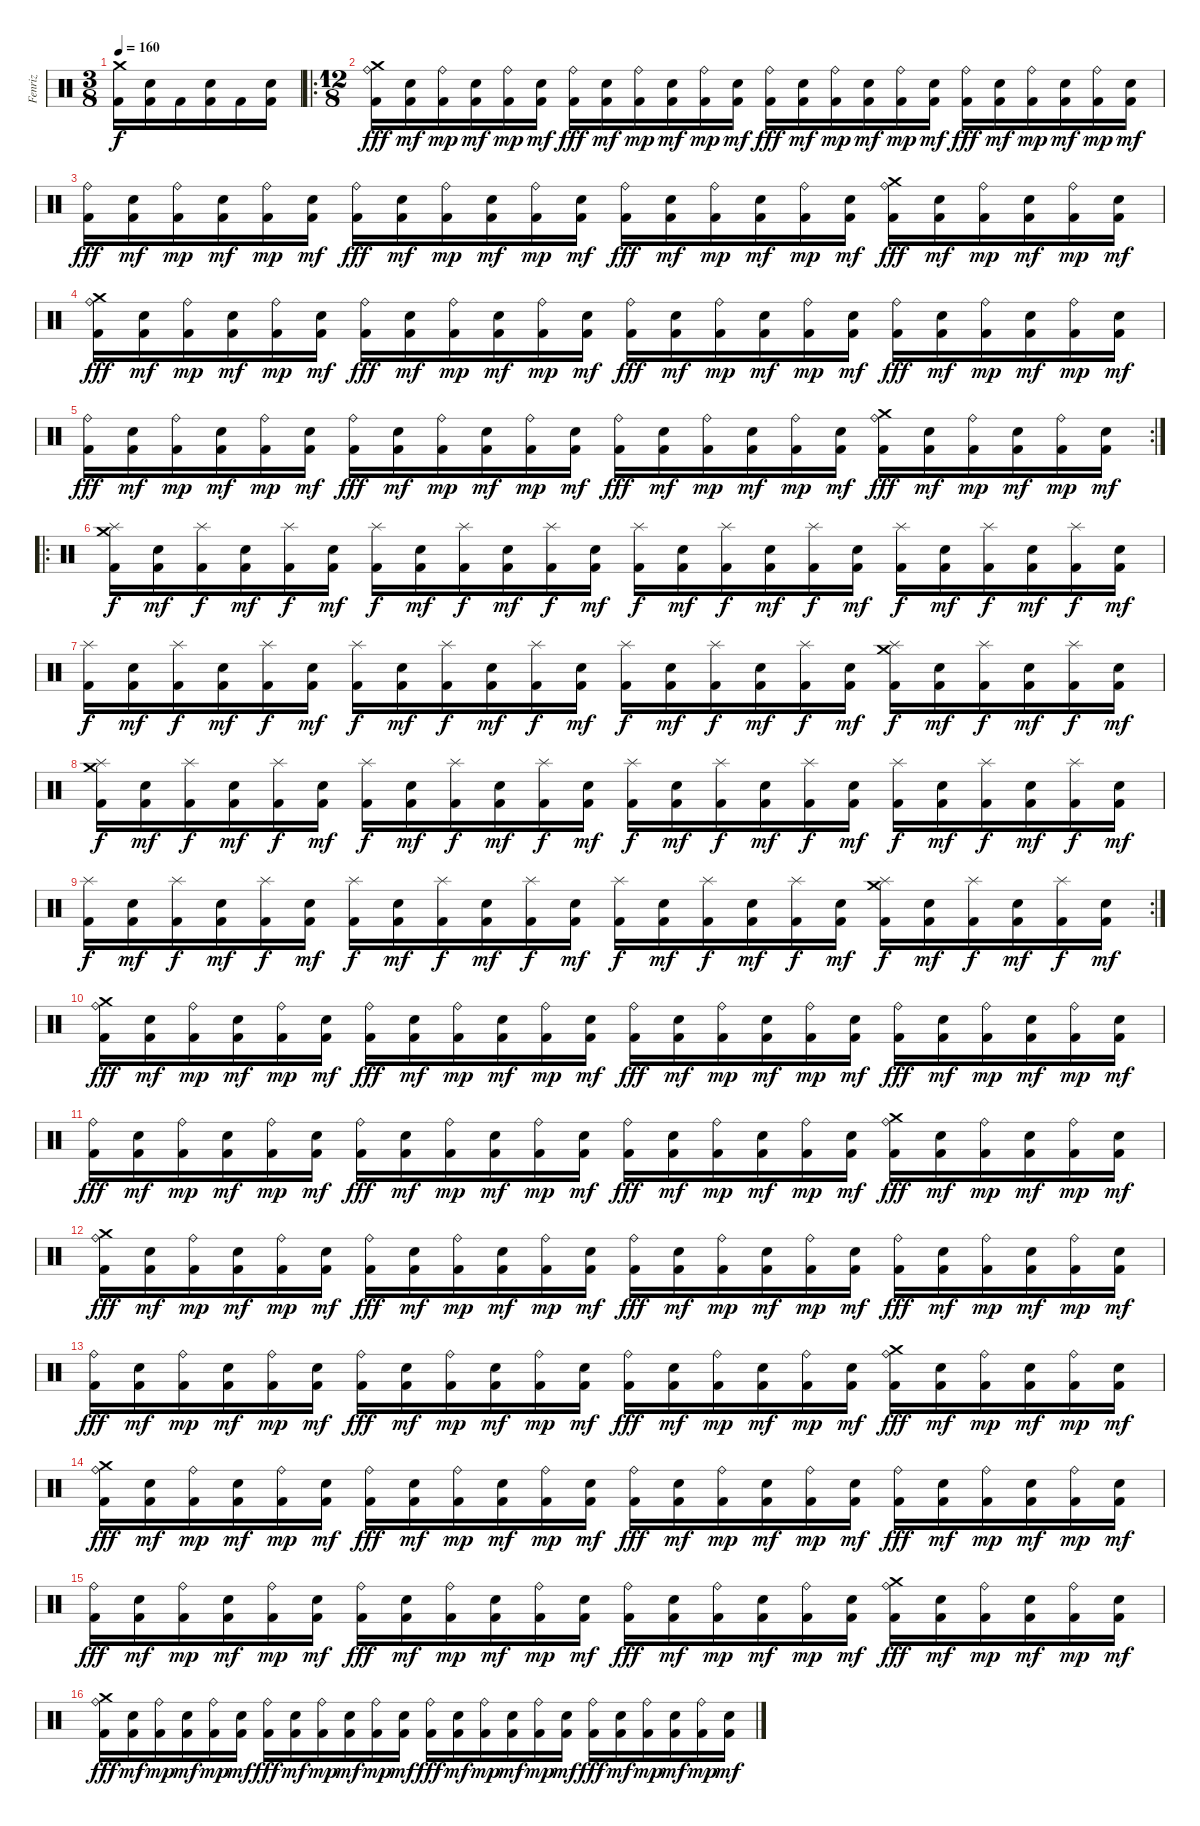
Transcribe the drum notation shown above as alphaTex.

\track ("Fenriz" "Fenriz") {instrument percussion}
\staff {score}
\articulation defaults
\ts (3 8)
\tempo 160
\clef neutral
\ks c
("Kick (hit) 2" "Crash medium (hit)").16{dy f} ("Kick (hit) 2" "Electric Snare (hit)").16 "Kick (hit) 2".16 ("Kick (hit) 2" "Electric Snare (hit)").16 "Kick (hit) 2".16 ("Kick (hit) 2" "Electric Snare (hit)").16 |
\ro
\ts (12 8)
("Kick (hit) 2" "Crash medium (hit)" "Ride (bell)").16{dy fff} ("Kick (hit) 2" "Electric Snare (hit)").16{dy mf} ("Kick (hit) 2" "Ride (bell)").16{dy mp} ("Kick (hit) 2" "Electric Snare (hit)").16{dy mf} ("Kick (hit) 2" "Ride (bell)").16{dy mp} ("Kick (hit) 2" "Electric Snare (hit)").16{dy mf} ("Kick (hit) 2" "Ride (bell)").16{dy fff} ("Kick (hit) 2" "Electric Snare (hit)").16{dy mf} ("Kick (hit) 2" "Ride (bell)").16{dy mp} ("Kick (hit) 2" "Electric Snare (hit)").16{dy mf} ("Kick (hit) 2" "Ride (bell)").16{dy mp} ("Kick (hit) 2" "Electric Snare (hit)").16{dy mf} ("Kick (hit) 2" "Ride (bell)").16{dy fff} ("Kick (hit) 2" "Electric Snare (hit)").16{dy mf} ("Kick (hit) 2" "Ride (bell)").16{dy mp} ("Kick (hit) 2" "Electric Snare (hit)").16{dy mf} ("Kick (hit) 2" "Ride (bell)").16{dy mp} ("Kick (hit) 2" "Electric Snare (hit)").16{dy mf} ("Kick (hit) 2" "Ride (bell)").16{dy fff} ("Kick (hit) 2" "Electric Snare (hit)").16{dy mf} ("Kick (hit) 2" "Ride (bell)").16{dy mp} ("Kick (hit) 2" "Electric Snare (hit)").16{dy mf} ("Kick (hit) 2" "Ride (bell)").16{dy mp} ("Kick (hit) 2" "Electric Snare (hit)").16{dy mf} |
("Kick (hit) 2" "Ride (bell)").16{dy fff} ("Kick (hit) 2" "Electric Snare (hit)").16{dy mf} ("Kick (hit) 2" "Ride (bell)").16{dy mp} ("Kick (hit) 2" "Electric Snare (hit)").16{dy mf} ("Kick (hit) 2" "Ride (bell)").16{dy mp} ("Kick (hit) 2" "Electric Snare (hit)").16{dy mf} ("Kick (hit) 2" "Ride (bell)").16{dy fff} ("Kick (hit) 2" "Electric Snare (hit)").16{dy mf} ("Kick (hit) 2" "Ride (bell)").16{dy mp} ("Kick (hit) 2" "Electric Snare (hit)").16{dy mf} ("Kick (hit) 2" "Ride (bell)").16{dy mp} ("Kick (hit) 2" "Electric Snare (hit)").16{dy mf} ("Kick (hit) 2" "Ride (bell)").16{dy fff} ("Kick (hit) 2" "Electric Snare (hit)").16{dy mf} ("Kick (hit) 2" "Ride (bell)").16{dy mp} ("Kick (hit) 2" "Electric Snare (hit)").16{dy mf} ("Kick (hit) 2" "Ride (bell)").16{dy mp} ("Kick (hit) 2" "Electric Snare (hit)").16{dy mf} ("Kick (hit) 2" "Crash medium (hit)" "Ride (bell)").16{dy fff} ("Kick (hit) 2" "Electric Snare (hit)").16{dy mf} ("Kick (hit) 2" "Ride (bell)").16{dy mp} ("Kick (hit) 2" "Electric Snare (hit)").16{dy mf} ("Kick (hit) 2" "Ride (bell)").16{dy mp} ("Kick (hit) 2" "Electric Snare (hit)").16{dy mf} |
("Kick (hit) 2" "Crash medium (hit)" "Ride (bell)").16{dy fff} ("Kick (hit) 2" "Electric Snare (hit)").16{dy mf} ("Kick (hit) 2" "Ride (bell)").16{dy mp} ("Kick (hit) 2" "Electric Snare (hit)").16{dy mf} ("Kick (hit) 2" "Ride (bell)").16{dy mp} ("Kick (hit) 2" "Electric Snare (hit)").16{dy mf} ("Kick (hit) 2" "Ride (bell)").16{dy fff} ("Kick (hit) 2" "Electric Snare (hit)").16{dy mf} ("Kick (hit) 2" "Ride (bell)").16{dy mp} ("Kick (hit) 2" "Electric Snare (hit)").16{dy mf} ("Kick (hit) 2" "Ride (bell)").16{dy mp} ("Kick (hit) 2" "Electric Snare (hit)").16{dy mf} ("Kick (hit) 2" "Ride (bell)").16{dy fff} ("Kick (hit) 2" "Electric Snare (hit)").16{dy mf} ("Kick (hit) 2" "Ride (bell)").16{dy mp} ("Kick (hit) 2" "Electric Snare (hit)").16{dy mf} ("Kick (hit) 2" "Ride (bell)").16{dy mp} ("Kick (hit) 2" "Electric Snare (hit)").16{dy mf} ("Kick (hit) 2" "Ride (bell)").16{dy fff} ("Kick (hit) 2" "Electric Snare (hit)").16{dy mf} ("Kick (hit) 2" "Ride (bell)").16{dy mp} ("Kick (hit) 2" "Electric Snare (hit)").16{dy mf} ("Kick (hit) 2" "Ride (bell)").16{dy mp} ("Kick (hit) 2" "Electric Snare (hit)").16{dy mf} |
\rc 2
("Kick (hit) 2" "Ride (bell)").16{dy fff} ("Kick (hit) 2" "Electric Snare (hit)").16{dy mf} ("Kick (hit) 2" "Ride (bell)").16{dy mp} ("Kick (hit) 2" "Electric Snare (hit)").16{dy mf} ("Kick (hit) 2" "Ride (bell)").16{dy mp} ("Kick (hit) 2" "Electric Snare (hit)").16{dy mf} ("Kick (hit) 2" "Ride (bell)").16{dy fff} ("Kick (hit) 2" "Electric Snare (hit)").16{dy mf} ("Kick (hit) 2" "Ride (bell)").16{dy mp} ("Kick (hit) 2" "Electric Snare (hit)").16{dy mf} ("Kick (hit) 2" "Ride (bell)").16{dy mp} ("Kick (hit) 2" "Electric Snare (hit)").16{dy mf} ("Kick (hit) 2" "Ride (bell)").16{dy fff} ("Kick (hit) 2" "Electric Snare (hit)").16{dy mf} ("Kick (hit) 2" "Ride (bell)").16{dy mp} ("Kick (hit) 2" "Electric Snare (hit)").16{dy mf} ("Kick (hit) 2" "Ride (bell)").16{dy mp} ("Kick (hit) 2" "Electric Snare (hit)").16{dy mf} ("Kick (hit) 2" "Crash medium (hit)" "Ride (bell)").16{dy fff} ("Kick (hit) 2" "Electric Snare (hit)").16{dy mf} ("Kick (hit) 2" "Ride (bell)").16{dy mp} ("Kick (hit) 2" "Electric Snare (hit)").16{dy mf} ("Kick (hit) 2" "Ride (bell)").16{dy mp} ("Kick (hit) 2" "Electric Snare (hit)").16{dy mf} |
\ro
("Kick (hit) 2" "Crash medium (hit)" "Splash (hit)").16{dy f} ("Kick (hit) 2" "Electric Snare (hit)").16{dy mf} ("Kick (hit) 2" "Splash (hit)").16{dy f} ("Kick (hit) 2" "Electric Snare (hit)").16{dy mf} ("Kick (hit) 2" "Splash (hit)").16{dy f} ("Kick (hit) 2" "Electric Snare (hit)").16{dy mf} ("Kick (hit) 2" "Splash (hit)").16{dy f} ("Kick (hit) 2" "Electric Snare (hit)").16{dy mf} ("Kick (hit) 2" "Splash (hit)").16{dy f} ("Kick (hit) 2" "Electric Snare (hit)").16{dy mf} ("Kick (hit) 2" "Splash (hit)").16{dy f} ("Kick (hit) 2" "Electric Snare (hit)").16{dy mf} ("Kick (hit) 2" "Splash (hit)").16{dy f} ("Kick (hit) 2" "Electric Snare (hit)").16{dy mf} ("Kick (hit) 2" "Splash (hit)").16{dy f} ("Kick (hit) 2" "Electric Snare (hit)").16{dy mf} ("Kick (hit) 2" "Splash (hit)").16{dy f} ("Kick (hit) 2" "Electric Snare (hit)").16{dy mf} ("Kick (hit) 2" "Splash (hit)").16{dy f} ("Kick (hit) 2" "Electric Snare (hit)").16{dy mf} ("Kick (hit) 2" "Splash (hit)").16{dy f} ("Kick (hit) 2" "Electric Snare (hit)").16{dy mf} ("Kick (hit) 2" "Splash (hit)").16{dy f} ("Kick (hit) 2" "Electric Snare (hit)").16{dy mf} |
("Kick (hit) 2" "Splash (hit)").16{dy f} ("Kick (hit) 2" "Electric Snare (hit)").16{dy mf} ("Kick (hit) 2" "Splash (hit)").16{dy f} ("Kick (hit) 2" "Electric Snare (hit)").16{dy mf} ("Kick (hit) 2" "Splash (hit)").16{dy f} ("Kick (hit) 2" "Electric Snare (hit)").16{dy mf} ("Kick (hit) 2" "Splash (hit)").16{dy f} ("Kick (hit) 2" "Electric Snare (hit)").16{dy mf} ("Kick (hit) 2" "Splash (hit)").16{dy f} ("Kick (hit) 2" "Electric Snare (hit)").16{dy mf} ("Kick (hit) 2" "Splash (hit)").16{dy f} ("Kick (hit) 2" "Electric Snare (hit)").16{dy mf} ("Kick (hit) 2" "Splash (hit)").16{dy f} ("Kick (hit) 2" "Electric Snare (hit)").16{dy mf} ("Kick (hit) 2" "Splash (hit)").16{dy f} ("Kick (hit) 2" "Electric Snare (hit)").16{dy mf} ("Kick (hit) 2" "Splash (hit)").16{dy f} ("Kick (hit) 2" "Electric Snare (hit)").16{dy mf} ("Kick (hit) 2" "Crash medium (hit)" "Splash (hit)").16{dy f} ("Kick (hit) 2" "Electric Snare (hit)").16{dy mf} ("Kick (hit) 2" "Splash (hit)").16{dy f} ("Kick (hit) 2" "Electric Snare (hit)").16{dy mf} ("Kick (hit) 2" "Splash (hit)").16{dy f} ("Kick (hit) 2" "Electric Snare (hit)").16{dy mf} |
("Kick (hit) 2" "Crash medium (hit)" "Splash (hit)").16{dy f} ("Kick (hit) 2" "Electric Snare (hit)").16{dy mf} ("Kick (hit) 2" "Splash (hit)").16{dy f} ("Kick (hit) 2" "Electric Snare (hit)").16{dy mf} ("Kick (hit) 2" "Splash (hit)").16{dy f} ("Kick (hit) 2" "Electric Snare (hit)").16{dy mf} ("Kick (hit) 2" "Splash (hit)").16{dy f} ("Kick (hit) 2" "Electric Snare (hit)").16{dy mf} ("Kick (hit) 2" "Splash (hit)").16{dy f} ("Kick (hit) 2" "Electric Snare (hit)").16{dy mf} ("Kick (hit) 2" "Splash (hit)").16{dy f} ("Kick (hit) 2" "Electric Snare (hit)").16{dy mf} ("Kick (hit) 2" "Splash (hit)").16{dy f} ("Kick (hit) 2" "Electric Snare (hit)").16{dy mf} ("Kick (hit) 2" "Splash (hit)").16{dy f} ("Kick (hit) 2" "Electric Snare (hit)").16{dy mf} ("Kick (hit) 2" "Splash (hit)").16{dy f} ("Kick (hit) 2" "Electric Snare (hit)").16{dy mf} ("Kick (hit) 2" "Splash (hit)").16{dy f} ("Kick (hit) 2" "Electric Snare (hit)").16{dy mf} ("Kick (hit) 2" "Splash (hit)").16{dy f} ("Kick (hit) 2" "Electric Snare (hit)").16{dy mf} ("Kick (hit) 2" "Splash (hit)").16{dy f} ("Kick (hit) 2" "Electric Snare (hit)").16{dy mf} |
\rc 2
("Kick (hit) 2" "Splash (hit)").16{dy f} ("Kick (hit) 2" "Electric Snare (hit)").16{dy mf} ("Kick (hit) 2" "Splash (hit)").16{dy f} ("Kick (hit) 2" "Electric Snare (hit)").16{dy mf} ("Kick (hit) 2" "Splash (hit)").16{dy f} ("Kick (hit) 2" "Electric Snare (hit)").16{dy mf} ("Kick (hit) 2" "Splash (hit)").16{dy f} ("Kick (hit) 2" "Electric Snare (hit)").16{dy mf} ("Kick (hit) 2" "Splash (hit)").16{dy f} ("Kick (hit) 2" "Electric Snare (hit)").16{dy mf} ("Kick (hit) 2" "Splash (hit)").16{dy f} ("Kick (hit) 2" "Electric Snare (hit)").16{dy mf} ("Kick (hit) 2" "Splash (hit)").16{dy f} ("Kick (hit) 2" "Electric Snare (hit)").16{dy mf} ("Kick (hit) 2" "Splash (hit)").16{dy f} ("Kick (hit) 2" "Electric Snare (hit)").16{dy mf} ("Kick (hit) 2" "Splash (hit)").16{dy f} ("Kick (hit) 2" "Electric Snare (hit)").16{dy mf} ("Kick (hit) 2" "Crash medium (hit)" "Splash (hit)").16{dy f} ("Kick (hit) 2" "Electric Snare (hit)").16{dy mf} ("Kick (hit) 2" "Splash (hit)").16{dy f} ("Kick (hit) 2" "Electric Snare (hit)").16{dy mf} ("Kick (hit) 2" "Splash (hit)").16{dy f} ("Kick (hit) 2" "Electric Snare (hit)").16{dy mf} |
("Kick (hit) 2" "Crash medium (hit)" "Ride (bell)").16{dy fff} ("Kick (hit) 2" "Electric Snare (hit)").16{dy mf} ("Kick (hit) 2" "Ride (bell)").16{dy mp} ("Kick (hit) 2" "Electric Snare (hit)").16{dy mf} ("Kick (hit) 2" "Ride (bell)").16{dy mp} ("Kick (hit) 2" "Electric Snare (hit)").16{dy mf} ("Kick (hit) 2" "Ride (bell)").16{dy fff} ("Kick (hit) 2" "Electric Snare (hit)").16{dy mf} ("Kick (hit) 2" "Ride (bell)").16{dy mp} ("Kick (hit) 2" "Electric Snare (hit)").16{dy mf} ("Kick (hit) 2" "Ride (bell)").16{dy mp} ("Kick (hit) 2" "Electric Snare (hit)").16{dy mf} ("Kick (hit) 2" "Ride (bell)").16{dy fff} ("Kick (hit) 2" "Electric Snare (hit)").16{dy mf} ("Kick (hit) 2" "Ride (bell)").16{dy mp} ("Kick (hit) 2" "Electric Snare (hit)").16{dy mf} ("Kick (hit) 2" "Ride (bell)").16{dy mp} ("Kick (hit) 2" "Electric Snare (hit)").16{dy mf} ("Kick (hit) 2" "Ride (bell)").16{dy fff} ("Kick (hit) 2" "Electric Snare (hit)").16{dy mf} ("Kick (hit) 2" "Ride (bell)").16{dy mp} ("Kick (hit) 2" "Electric Snare (hit)").16{dy mf} ("Kick (hit) 2" "Ride (bell)").16{dy mp} ("Kick (hit) 2" "Electric Snare (hit)").16{dy mf} |
("Kick (hit) 2" "Ride (bell)").16{dy fff} ("Kick (hit) 2" "Electric Snare (hit)").16{dy mf} ("Kick (hit) 2" "Ride (bell)").16{dy mp} ("Kick (hit) 2" "Electric Snare (hit)").16{dy mf} ("Kick (hit) 2" "Ride (bell)").16{dy mp} ("Kick (hit) 2" "Electric Snare (hit)").16{dy mf} ("Kick (hit) 2" "Ride (bell)").16{dy fff} ("Kick (hit) 2" "Electric Snare (hit)").16{dy mf} ("Kick (hit) 2" "Ride (bell)").16{dy mp} ("Kick (hit) 2" "Electric Snare (hit)").16{dy mf} ("Kick (hit) 2" "Ride (bell)").16{dy mp} ("Kick (hit) 2" "Electric Snare (hit)").16{dy mf} ("Kick (hit) 2" "Ride (bell)").16{dy fff} ("Kick (hit) 2" "Electric Snare (hit)").16{dy mf} ("Kick (hit) 2" "Ride (bell)").16{dy mp} ("Kick (hit) 2" "Electric Snare (hit)").16{dy mf} ("Kick (hit) 2" "Ride (bell)").16{dy mp} ("Kick (hit) 2" "Electric Snare (hit)").16{dy mf} ("Kick (hit) 2" "Crash medium (hit)" "Ride (bell)").16{dy fff} ("Kick (hit) 2" "Electric Snare (hit)").16{dy mf} ("Kick (hit) 2" "Ride (bell)").16{dy mp} ("Kick (hit) 2" "Electric Snare (hit)").16{dy mf} ("Kick (hit) 2" "Ride (bell)").16{dy mp} ("Kick (hit) 2" "Electric Snare (hit)").16{dy mf} |
("Kick (hit) 2" "Crash medium (hit)" "Ride (bell)").16{dy fff} ("Kick (hit) 2" "Electric Snare (hit)").16{dy mf} ("Kick (hit) 2" "Ride (bell)").16{dy mp} ("Kick (hit) 2" "Electric Snare (hit)").16{dy mf} ("Kick (hit) 2" "Ride (bell)").16{dy mp} ("Kick (hit) 2" "Electric Snare (hit)").16{dy mf} ("Kick (hit) 2" "Ride (bell)").16{dy fff} ("Kick (hit) 2" "Electric Snare (hit)").16{dy mf} ("Kick (hit) 2" "Ride (bell)").16{dy mp} ("Kick (hit) 2" "Electric Snare (hit)").16{dy mf} ("Kick (hit) 2" "Ride (bell)").16{dy mp} ("Kick (hit) 2" "Electric Snare (hit)").16{dy mf} ("Kick (hit) 2" "Ride (bell)").16{dy fff} ("Kick (hit) 2" "Electric Snare (hit)").16{dy mf} ("Kick (hit) 2" "Ride (bell)").16{dy mp} ("Kick (hit) 2" "Electric Snare (hit)").16{dy mf} ("Kick (hit) 2" "Ride (bell)").16{dy mp} ("Kick (hit) 2" "Electric Snare (hit)").16{dy mf} ("Kick (hit) 2" "Ride (bell)").16{dy fff} ("Kick (hit) 2" "Electric Snare (hit)").16{dy mf} ("Kick (hit) 2" "Ride (bell)").16{dy mp} ("Kick (hit) 2" "Electric Snare (hit)").16{dy mf} ("Kick (hit) 2" "Ride (bell)").16{dy mp} ("Kick (hit) 2" "Electric Snare (hit)").16{dy mf} |
("Kick (hit) 2" "Ride (bell)").16{dy fff} ("Kick (hit) 2" "Electric Snare (hit)").16{dy mf} ("Kick (hit) 2" "Ride (bell)").16{dy mp} ("Kick (hit) 2" "Electric Snare (hit)").16{dy mf} ("Kick (hit) 2" "Ride (bell)").16{dy mp} ("Kick (hit) 2" "Electric Snare (hit)").16{dy mf} ("Kick (hit) 2" "Ride (bell)").16{dy fff} ("Kick (hit) 2" "Electric Snare (hit)").16{dy mf} ("Kick (hit) 2" "Ride (bell)").16{dy mp} ("Kick (hit) 2" "Electric Snare (hit)").16{dy mf} ("Kick (hit) 2" "Ride (bell)").16{dy mp} ("Kick (hit) 2" "Electric Snare (hit)").16{dy mf} ("Kick (hit) 2" "Ride (bell)").16{dy fff} ("Kick (hit) 2" "Electric Snare (hit)").16{dy mf} ("Kick (hit) 2" "Ride (bell)").16{dy mp} ("Kick (hit) 2" "Electric Snare (hit)").16{dy mf} ("Kick (hit) 2" "Ride (bell)").16{dy mp} ("Kick (hit) 2" "Electric Snare (hit)").16{dy mf} ("Kick (hit) 2" "Crash medium (hit)" "Ride (bell)").16{dy fff} ("Kick (hit) 2" "Electric Snare (hit)").16{dy mf} ("Kick (hit) 2" "Ride (bell)").16{dy mp} ("Kick (hit) 2" "Electric Snare (hit)").16{dy mf} ("Kick (hit) 2" "Ride (bell)").16{dy mp} ("Kick (hit) 2" "Electric Snare (hit)").16{dy mf} |
("Kick (hit) 2" "Crash medium (hit)" "Ride (bell)").16{dy fff} ("Kick (hit) 2" "Electric Snare (hit)").16{dy mf} ("Kick (hit) 2" "Ride (bell)").16{dy mp} ("Kick (hit) 2" "Electric Snare (hit)").16{dy mf} ("Kick (hit) 2" "Ride (bell)").16{dy mp} ("Kick (hit) 2" "Electric Snare (hit)").16{dy mf} ("Kick (hit) 2" "Ride (bell)").16{dy fff} ("Kick (hit) 2" "Electric Snare (hit)").16{dy mf} ("Kick (hit) 2" "Ride (bell)").16{dy mp} ("Kick (hit) 2" "Electric Snare (hit)").16{dy mf} ("Kick (hit) 2" "Ride (bell)").16{dy mp} ("Kick (hit) 2" "Electric Snare (hit)").16{dy mf} ("Kick (hit) 2" "Ride (bell)").16{dy fff} ("Kick (hit) 2" "Electric Snare (hit)").16{dy mf} ("Kick (hit) 2" "Ride (bell)").16{dy mp} ("Kick (hit) 2" "Electric Snare (hit)").16{dy mf} ("Kick (hit) 2" "Ride (bell)").16{dy mp} ("Kick (hit) 2" "Electric Snare (hit)").16{dy mf} ("Kick (hit) 2" "Ride (bell)").16{dy fff} ("Kick (hit) 2" "Electric Snare (hit)").16{dy mf} ("Kick (hit) 2" "Ride (bell)").16{dy mp} ("Kick (hit) 2" "Electric Snare (hit)").16{dy mf} ("Kick (hit) 2" "Ride (bell)").16{dy mp} ("Kick (hit) 2" "Electric Snare (hit)").16{dy mf} |
("Kick (hit) 2" "Ride (bell)").16{dy fff} ("Kick (hit) 2" "Electric Snare (hit)").16{dy mf} ("Kick (hit) 2" "Ride (bell)").16{dy mp} ("Kick (hit) 2" "Electric Snare (hit)").16{dy mf} ("Kick (hit) 2" "Ride (bell)").16{dy mp} ("Kick (hit) 2" "Electric Snare (hit)").16{dy mf} ("Kick (hit) 2" "Ride (bell)").16{dy fff} ("Kick (hit) 2" "Electric Snare (hit)").16{dy mf} ("Kick (hit) 2" "Ride (bell)").16{dy mp} ("Kick (hit) 2" "Electric Snare (hit)").16{dy mf} ("Kick (hit) 2" "Ride (bell)").16{dy mp} ("Kick (hit) 2" "Electric Snare (hit)").16{dy mf} ("Kick (hit) 2" "Ride (bell)").16{dy fff} ("Kick (hit) 2" "Electric Snare (hit)").16{dy mf} ("Kick (hit) 2" "Ride (bell)").16{dy mp} ("Kick (hit) 2" "Electric Snare (hit)").16{dy mf} ("Kick (hit) 2" "Ride (bell)").16{dy mp} ("Kick (hit) 2" "Electric Snare (hit)").16{dy mf} ("Kick (hit) 2" "Crash medium (hit)" "Ride (bell)").16{dy fff} ("Kick (hit) 2" "Electric Snare (hit)").16{dy mf} ("Kick (hit) 2" "Ride (bell)").16{dy mp} ("Kick (hit) 2" "Electric Snare (hit)").16{dy mf} ("Kick (hit) 2" "Ride (bell)").16{dy mp} ("Kick (hit) 2" "Electric Snare (hit)").16{dy mf} |
("Kick (hit) 2" "Crash medium (hit)" "Ride (bell)").16{dy fff} ("Kick (hit) 2" "Electric Snare (hit)").16{dy mf} ("Kick (hit) 2" "Ride (bell)").16{dy mp} ("Kick (hit) 2" "Electric Snare (hit)").16{dy mf} ("Kick (hit) 2" "Ride (bell)").16{dy mp} ("Kick (hit) 2" "Electric Snare (hit)").16{dy mf} ("Kick (hit) 2" "Ride (bell)").16{dy fff} ("Kick (hit) 2" "Electric Snare (hit)").16{dy mf} ("Kick (hit) 2" "Ride (bell)").16{dy mp} ("Kick (hit) 2" "Electric Snare (hit)").16{dy mf} ("Kick (hit) 2" "Ride (bell)").16{dy mp} ("Kick (hit) 2" "Electric Snare (hit)").16{dy mf} ("Kick (hit) 2" "Ride (bell)").16{dy fff} ("Kick (hit) 2" "Electric Snare (hit)").16{dy mf} ("Kick (hit) 2" "Ride (bell)").16{dy mp} ("Kick (hit) 2" "Electric Snare (hit)").16{dy mf} ("Kick (hit) 2" "Ride (bell)").16{dy mp} ("Kick (hit) 2" "Electric Snare (hit)").16{dy mf} ("Kick (hit) 2" "Ride (bell)").16{dy fff} ("Kick (hit) 2" "Electric Snare (hit)").16{dy mf} ("Kick (hit) 2" "Ride (bell)").16{dy mp} ("Kick (hit) 2" "Electric Snare (hit)").16{dy mf} ("Kick (hit) 2" "Ride (bell)").16{dy mp} ("Kick (hit) 2" "Electric Snare (hit)").16{dy mf}
